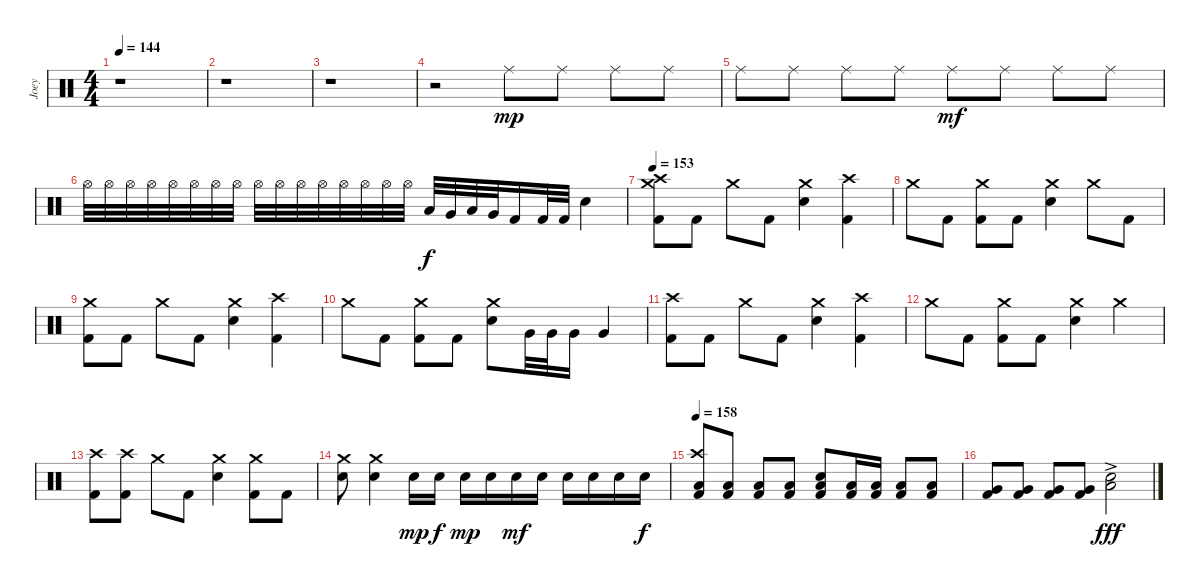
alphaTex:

\track ("Joey" "Joey") {instrument percussion}
\staff {score}
\articulation defaults
\ts (4 4)
\tempo 144
\clef neutral
\ks c
r.1{dy ppp} |
r.1 |
r.1 |
r.2 "Ride (middle)".8{dy mp} "Ride (middle)".8 "Ride (middle)".8 "Ride (middle)".8 |
"Ride (middle)".8 "Ride (middle)".8 "Ride (middle)".8 "Ride (middle)".8 "Ride (middle)".8{dy mf} "Ride (middle)".8 "Ride (middle)".8 "Ride (middle)".8 |
"Hi-Hat (open)".32 "Hi-Hat (open)".32 "Hi-Hat (open)".32 "Hi-Hat (open)".32 "Hi-Hat (open)".32 "Hi-Hat (open)".32 "Hi-Hat (open)".32 "Hi-Hat (open)".32 "Hi-Hat (open)".32 "Hi-Hat (open)".32 "Hi-Hat (open)".32 "Hi-Hat (open)".32 "Hi-Hat (open)".32 "Hi-Hat (open)".32 "Hi-Hat (open)".32 "Hi-Hat (open)".32 "Low Tom (hit)".32{dy f} "Very Low Tom (hit)".32 "Low Tom (hit)".32 "Very Low Tom (hit)".32 "Kick (hit) 2".16 "Kick (hit) 2".32 "Kick (hit) 2".32 "Electric Snare (hit)".4 |
\tempo 153
("Crash high (hit)" "Crash medium (hit)" "Kick (hit) 2").8 "Kick (hit) 2".8 "Crash medium (hit)".8 "Kick (hit) 2".8 ("Crash medium (hit)" "Electric Snare (hit)").4 ("Crash high (hit)" "Kick (hit) 2").4 |
"Crash medium (hit)".8 "Kick (hit) 2".8 ("Crash medium (hit)" "Kick (hit) 2").8 "Kick (hit) 2".8 ("Crash medium (hit)" "Electric Snare (hit)").4 "Crash medium (hit)".8 "Kick (hit) 2".8 |
("Crash medium (hit)" "Kick (hit) 2").8 "Kick (hit) 2".8 "Crash medium (hit)".8 "Kick (hit) 2".8 ("Crash medium (hit)" "Electric Snare (hit)").4 ("Crash high (hit)" "Kick (hit) 2").4 |
"Crash medium (hit)".8 "Kick (hit) 2".8 ("Crash medium (hit)" "Kick (hit) 2").8 "Kick (hit) 2".8 ("Crash medium (hit)" "Electric Snare (hit)").8 "Very Low Tom (hit)".32 "Very Low Tom (hit)".32 "Very Low Tom (hit)".16 "Very Low Tom (hit)".4 |
("Crash high (hit)" "Kick (hit) 2").8 "Kick (hit) 2".8 "Crash medium (hit)".8 "Kick (hit) 2".8 ("Crash medium (hit)" "Electric Snare (hit)").4 ("Crash high (hit)" "Kick (hit) 2").4 |
"Crash medium (hit)".8 "Kick (hit) 2".8 ("Crash medium (hit)" "Kick (hit) 2").8 "Kick (hit) 2".8 ("Crash medium (hit)" "Electric Snare (hit)").4 "Crash medium (hit)".4 |
("Crash high (hit)" "Kick (hit) 2").8 ("Crash high (hit)" "Kick (hit) 2").8 "Crash medium (hit)".8 "Kick (hit) 2".8 ("Crash medium (hit)" "Electric Snare (hit)").4 ("Crash medium (hit)" "Kick (hit) 2").8 "Kick (hit) 2".8 |
("Crash medium (hit)" "Electric Snare (hit)").8 ("Crash medium (hit)" "Electric Snare (hit)").4 "Electric Snare (hit)".16{dy mp} "Electric Snare (hit)".16{dy f} "Electric Snare (hit)".16{dy mp} "Electric Snare (hit)".16 "Electric Snare (hit)".16{dy mf} "Electric Snare (hit)".16 "Electric Snare (hit)".16 "Electric Snare (hit)".16 "Electric Snare (hit)".16 "Electric Snare (hit)".16{dy f} |
\tempo 158
("Crash high (hit)" "Low Floor Tom (hit)" "Kick (hit) 2").8 ("Low Floor Tom (hit)" "Kick (hit) 2").8 ("Low Floor Tom (hit)" "Kick (hit) 2").8 ("Low Floor Tom (hit)" "Kick (hit) 2").8 ("Electric Snare (hit)" "Low Floor Tom (hit)" "Kick (hit) 2").8 ("Low Tom (hit)" "Kick (hit) 2").16 ("Low Tom (hit)" "Kick (hit) 2").16 ("Low Tom (hit)" "Kick (hit) 2").8 ("Low Tom (hit)" "Kick (hit) 2").8 |
("Very Low Tom (hit)" "Kick (hit) 2").8 ("Very Low Tom (hit)" "Kick (hit) 2").8 ("Very Low Tom (hit)" "Kick (hit) 2").8 ("Very Low Tom (hit)" "Kick (hit) 2").8 ("Electric Snare (hit)" "Low Floor Tom (hit)"{ac}).2{dy fff}
